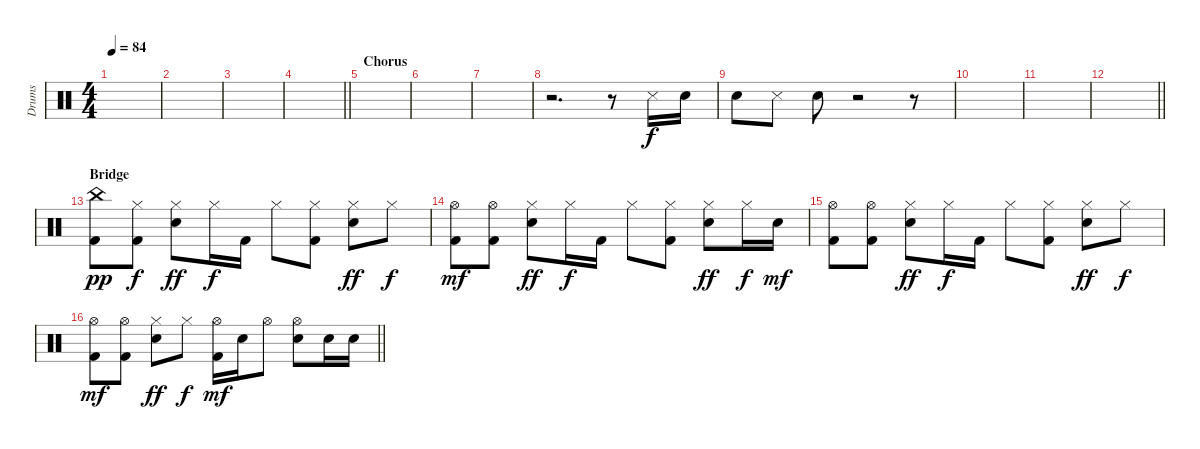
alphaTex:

\track ("Drums" "Drums") {instrument percussion}
\staff {score}
\articulation defaults
\ts (4 4)
\tempo 84
\clef neutral
\ks c
|
|
|
\barLineRight lightlight
|
\section ("" "Chorus")
|
|
|
r.2{d} r.8 "Snare (side stick) 3".16{balance 16} "Snare (hit) 2".16{balance 0} |
"Snare (hit) 2".8 "Snare (side stick) 3".8{balance 16} "Snare (hit) 2".8{balance 1} r.2 r.8 |
|
|
\barLineRight lightlight
|
\section ("" "Bridge")
("China (hit)" "Kick (hit) 2").8{dy pp volume 7 balance 8} ("Hi-Hat (closed)" "Kick (hit) 2").8{dy f} ("Hi-Hat (closed)" "Electric Snare (hit)").8{dy ff} "Hi-Hat (closed)".16{dy f} "Kick (hit) 2".16 "Hi-Hat (closed)".8 ("Hi-Hat (closed)" "Kick (hit) 2").8 ("Hi-Hat (closed)" "Electric Snare (hit)").8{dy ff} "Hi-Hat (closed)".8{dy f} |
("Hi-Hat (open)" "Kick (hit) 2").8{dy mf} ("Hi-Hat (open)" "Kick (hit) 2").8 ("Hi-Hat (closed)" "Electric Snare (hit)").8{dy ff} "Hi-Hat (closed)".16{dy f} "Kick (hit) 2".16 "Hi-Hat (closed)".8 ("Hi-Hat (closed)" "Kick (hit) 2").8 ("Hi-Hat (closed)" "Electric Snare (hit)").8{dy ff} "Hi-Hat (closed)".16{dy f} "Electric Snare (hit)".16{dy mf} |
("Hi-Hat (open)" "Kick (hit) 2").8 ("Hi-Hat (open)" "Kick (hit) 2").8 ("Hi-Hat (closed)" "Electric Snare (hit)").8{dy ff} "Hi-Hat (closed)".16{dy f} "Kick (hit) 2".16 "Hi-Hat (closed)".8 ("Hi-Hat (closed)" "Kick (hit) 2").8 ("Hi-Hat (closed)" "Electric Snare (hit)").8{dy ff} "Hi-Hat (closed)".8{dy f} |
\barLineRight lightlight
("Hi-Hat (open)" "Kick (hit) 2").8{dy mf} ("Hi-Hat (open)" "Kick (hit) 2").8 ("Hi-Hat (closed)" "Electric Snare (hit)").8{dy ff} "Hi-Hat (closed)".8{dy f} ("Hi-Hat (open)" "Kick (hit) 2").16{dy mf} "Electric Snare (hit)".16 "Hi-Hat (open)".8 ("Hi-Hat (open)" "Electric Snare (hit)").8 "Electric Snare (hit)".16 "Electric Snare (hit)".16
